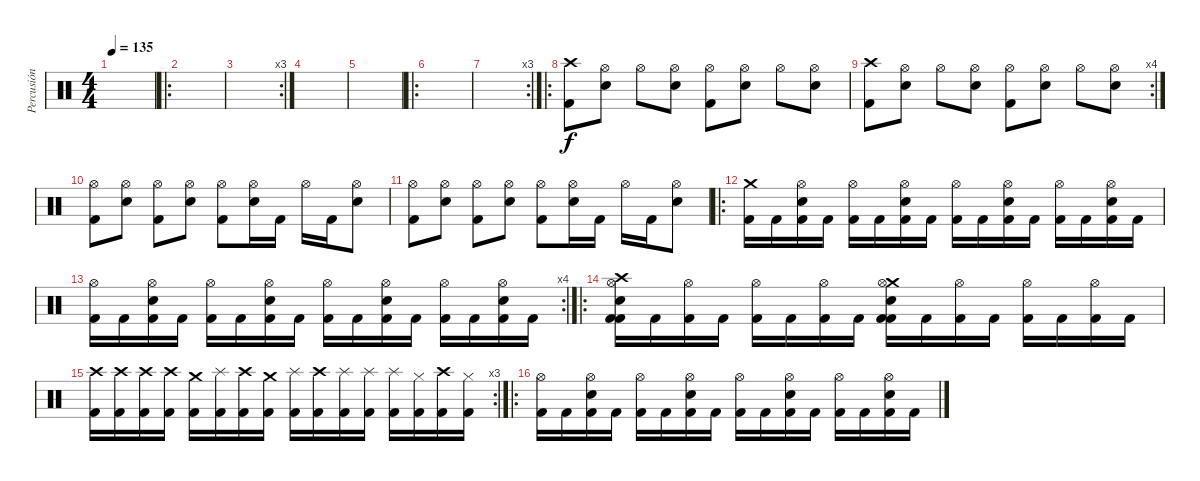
\track ("Percusión 1" "Percusión ") {instrument percussion}
\staff {score}
\articulation defaults
\ts (4 4)
\tempo 135
\clef neutral
\ks c
|
\ro
|
\rc 3
|
|
|
\ro
|
\rc 3
|
\ro
("Crash high (hit)" "Kick (hit) 2").8 ("Hi-Hat (open)" "Electric Snare (hit)").8 "Hi-Hat (open)".8 ("Hi-Hat (open)" "Electric Snare (hit)").8 ("Hi-Hat (open)" "Kick (hit) 2").8 ("Hi-Hat (open)" "Electric Snare (hit)").8 "Hi-Hat (open)".8 ("Hi-Hat (open)" "Electric Snare (hit)").8 |
\rc 4
("Crash high (hit)" "Kick (hit) 2").8 ("Hi-Hat (open)" "Electric Snare (hit)").8 "Hi-Hat (open)".8 ("Hi-Hat (open)" "Electric Snare (hit)").8 ("Hi-Hat (open)" "Kick (hit) 2").8 ("Hi-Hat (open)" "Electric Snare (hit)").8 "Hi-Hat (open)".8 ("Hi-Hat (open)" "Electric Snare (hit)").8 |
("Hi-Hat (open)" "Kick (hit) 2").8 ("Hi-Hat (open)" "Electric Snare (hit)").8 ("Hi-Hat (open)" "Kick (hit) 2").8 ("Hi-Hat (open)" "Electric Snare (hit)").8 ("Hi-Hat (open)" "Kick (hit) 2").8 ("Hi-Hat (open)" "Electric Snare (hit)").16 "Kick (hit) 2".16 "Hi-Hat (open)".16 "Kick (hit) 2".16 ("Hi-Hat (open)" "Electric Snare (hit)").8 |
("Hi-Hat (open)" "Kick (hit) 2").8 ("Hi-Hat (open)" "Electric Snare (hit)").8 ("Hi-Hat (open)" "Kick (hit) 2").8 ("Hi-Hat (open)" "Electric Snare (hit)").8 ("Hi-Hat (open)" "Kick (hit) 2").8 ("Hi-Hat (open)" "Electric Snare (hit)").16 "Kick (hit) 2".16 "Hi-Hat (open)".16 "Kick (hit) 2".16 ("Hi-Hat (open)" "Electric Snare (hit)").8 |
\ro
("Crash medium (hit)" "Kick (hit) 2").16 "Kick (hit) 2".16 ("Hi-Hat (open)" "Electric Snare (hit)" "Kick (hit) 2").16 "Kick (hit) 2".16 ("Hi-Hat (open)" "Kick (hit) 2").16 "Kick (hit) 2".16 ("Hi-Hat (open)" "Electric Snare (hit)" "Kick (hit) 2").16 "Kick (hit) 2".16 ("Hi-Hat (open)" "Kick (hit) 2").16 "Kick (hit) 2".16 ("Hi-Hat (open)" "Electric Snare (hit)" "Kick (hit) 2").16 "Kick (hit) 2".16 ("Hi-Hat (open)" "Kick (hit) 2").16 "Kick (hit) 2".16 ("Hi-Hat (open)" "Electric Snare (hit)" "Kick (hit) 2").16 "Kick (hit) 2".16 |
\rc 4
("Hi-Hat (open)" "Kick (hit) 2").16 "Kick (hit) 2".16 ("Hi-Hat (open)" "Electric Snare (hit)" "Kick (hit) 2").16 "Kick (hit) 2".16 ("Hi-Hat (open)" "Kick (hit) 2").16 "Kick (hit) 2".16 ("Hi-Hat (open)" "Electric Snare (hit)" "Kick (hit) 2").16 "Kick (hit) 2".16 ("Hi-Hat (open)" "Kick (hit) 2").16 "Kick (hit) 2".16 ("Hi-Hat (open)" "Electric Snare (hit)" "Kick (hit) 2").16 "Kick (hit) 2".16 ("Hi-Hat (open)" "Kick (hit) 2").16 "Kick (hit) 2".16 ("Hi-Hat (open)" "Electric Snare (hit)" "Kick (hit) 2").16 "Kick (hit) 2".16 |
\ro
("Crash high (hit)" "Electric Snare (hit)" "Kick (hit) 2" "Hi-Hat (open)" "Kick (hit) 2").16 "Kick (hit) 2".16 ("Hi-Hat (open)" "Kick (hit) 2").16 "Kick (hit) 2".16 ("Hi-Hat (open)" "Kick (hit) 2").16 "Kick (hit) 2".16 ("Hi-Hat (open)" "Kick (hit) 2").16 "Kick (hit) 2".16 ("Crash medium (hit)" "Electric Snare (hit)" "Kick (hit) 2" "Hi-Hat (open)" "Kick (hit) 2").16 "Kick (hit) 2".16 ("Hi-Hat (open)" "Kick (hit) 2").16 "Kick (hit) 2".16 ("Hi-Hat (open)" "Kick (hit) 2").16 "Kick (hit) 2".16 ("Hi-Hat (open)" "Kick (hit) 2").16 "Kick (hit) 2".16 |
\rc 3
("Crash high (hit)" "Kick (hit) 2").16 ("Crash high (hit)" "Kick (hit) 2").16 ("Crash high (hit)" "Kick (hit) 2").16 ("Crash high (hit)" "Kick (hit) 2").16 ("Crash medium (hit)" "Kick (hit) 2").16 ("Splash (hit)" "Kick (hit) 2").16 ("Crash high (hit)" "Kick (hit) 2").16 ("Crash medium (hit)" "Kick (hit) 2").16 ("Splash (hit)" "Kick (hit) 2").16 ("Crash high (hit)" "Kick (hit) 2").16 ("Splash (hit)" "Kick (hit) 2").16 ("Splash (hit)" "Kick (hit) 2").16 ("Splash (hit)" "Kick (hit) 2").16 ("Hi-Hat (closed)" "Kick (hit) 2").16 ("Crash high (hit)" "Kick (hit) 2").16 ("Hi-Hat (closed)" "Kick (hit) 2").16 |
\ro
("Hi-Hat (open)" "Kick (hit) 2").16 "Kick (hit) 2".16 ("Hi-Hat (open)" "Electric Snare (hit)" "Kick (hit) 2").16 "Kick (hit) 2".16 ("Hi-Hat (open)" "Kick (hit) 2").16 "Kick (hit) 2".16 ("Hi-Hat (open)" "Electric Snare (hit)" "Kick (hit) 2").16 "Kick (hit) 2".16 ("Hi-Hat (open)" "Kick (hit) 2").16 "Kick (hit) 2".16 ("Hi-Hat (open)" "Electric Snare (hit)" "Kick (hit) 2").16 "Kick (hit) 2".16 ("Hi-Hat (open)" "Kick (hit) 2").16 "Kick (hit) 2".16 ("Hi-Hat (open)" "Electric Snare (hit)" "Kick (hit) 2").16 "Kick (hit) 2".16
